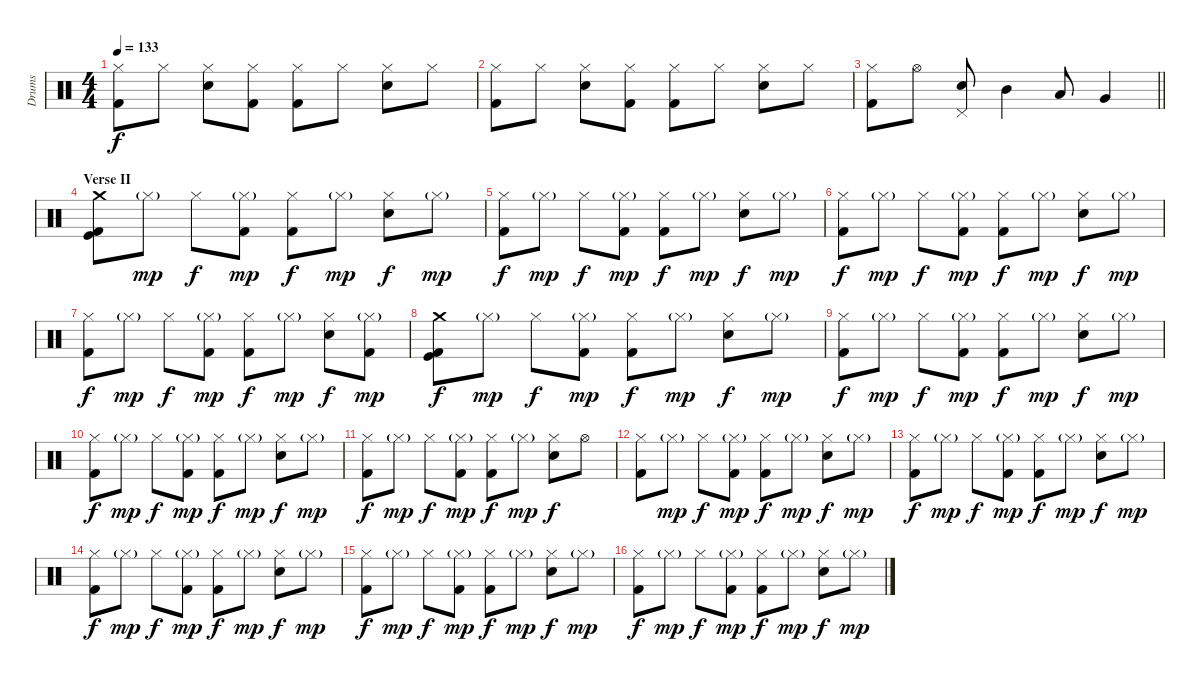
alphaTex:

\track ("Drums" "Drums") {instrument percussion}
\staff {score}
\articulation defaults
\ts (4 4)
\tempo 133
\clef neutral
\ks c
("Hi-Hat (closed)" "Kick (hit) 2").8{dy f} "Hi-Hat (closed)".8 ("Hi-Hat (closed)" "Electric Snare (hit)").8 ("Hi-Hat (closed)" "Kick (hit) 2").8 ("Hi-Hat (closed)" "Kick (hit) 2").8 "Hi-Hat (closed)".8 ("Hi-Hat (closed)" "Electric Snare (hit)").8 "Hi-Hat (closed)".8 |
("Hi-Hat (closed)" "Kick (hit) 2").8 "Hi-Hat (closed)".8 ("Hi-Hat (closed)" "Electric Snare (hit)").8 ("Hi-Hat (closed)" "Kick (hit) 2").8 ("Hi-Hat (closed)" "Kick (hit) 2").8 "Hi-Hat (closed)".8 ("Hi-Hat (closed)" "Electric Snare (hit)").8 "Hi-Hat (closed)".8 |
\barLineRight lightlight
("Hi-Hat (closed)" "Kick (hit) 2").8 "Hi-Hat (open)".8 ("Pedal Hi-Hat (hit)" "Electric Snare (hit)").8 "Mid Tom (hit)".4 "Low Tom (hit)".8 "Very Low Tom (hit)".4 |
\section ("" "Verse II")
("Crash medium (hit)" "Kick (hit) 2" "Kick (hit)").8 "Hi-Hat (closed)"{g}.8{dy mp} "Hi-Hat (closed)".8{dy f} ("Hi-Hat (closed)"{g} "Kick (hit) 2").8{dy mp} ("Hi-Hat (closed)" "Kick (hit) 2").8{dy f} "Hi-Hat (closed)"{g}.8{dy mp} ("Hi-Hat (closed)" "Electric Snare (hit)").8{dy f} "Hi-Hat (closed)"{g}.8{dy mp} |
("Hi-Hat (closed)" "Kick (hit) 2").8{dy f} "Hi-Hat (closed)"{g}.8{dy mp} "Hi-Hat (closed)".8{dy f} ("Hi-Hat (closed)"{g} "Kick (hit) 2").8{dy mp} ("Hi-Hat (closed)" "Kick (hit) 2").8{dy f} "Hi-Hat (closed)"{g}.8{dy mp} ("Hi-Hat (closed)" "Electric Snare (hit)").8{dy f} "Hi-Hat (closed)"{g}.8{dy mp} |
("Hi-Hat (closed)" "Kick (hit) 2").8{dy f} "Hi-Hat (closed)"{g}.8{dy mp} "Hi-Hat (closed)".8{dy f} ("Hi-Hat (closed)"{g} "Kick (hit) 2").8{dy mp} ("Hi-Hat (closed)" "Kick (hit) 2").8{dy f} "Hi-Hat (closed)"{g}.8{dy mp} ("Hi-Hat (closed)" "Electric Snare (hit)").8{dy f} "Hi-Hat (closed)"{g}.8{dy mp} |
("Hi-Hat (closed)" "Kick (hit) 2").8{dy f} "Hi-Hat (closed)"{g}.8{dy mp} "Hi-Hat (closed)".8{dy f} ("Hi-Hat (closed)"{g} "Kick (hit) 2").8{dy mp} ("Hi-Hat (closed)" "Kick (hit) 2").8{dy f} "Hi-Hat (closed)"{g}.8{dy mp} ("Hi-Hat (closed)" "Electric Snare (hit)").8{dy f} ("Hi-Hat (closed)"{g} "Kick (hit) 2").8{dy mp} |
("Crash medium (hit)" "Kick (hit) 2" "Kick (hit)").8{dy f} "Hi-Hat (closed)"{g}.8{dy mp} "Hi-Hat (closed)".8{dy f} ("Hi-Hat (closed)"{g} "Kick (hit) 2").8{dy mp} ("Hi-Hat (closed)" "Kick (hit) 2").8{dy f} "Hi-Hat (closed)"{g}.8{dy mp} ("Hi-Hat (closed)" "Electric Snare (hit)").8{dy f} "Hi-Hat (closed)"{g}.8{dy mp} |
("Hi-Hat (closed)" "Kick (hit) 2").8{dy f} "Hi-Hat (closed)"{g}.8{dy mp} "Hi-Hat (closed)".8{dy f} ("Hi-Hat (closed)"{g} "Kick (hit) 2").8{dy mp} ("Hi-Hat (closed)" "Kick (hit) 2").8{dy f} "Hi-Hat (closed)"{g}.8{dy mp} ("Hi-Hat (closed)" "Electric Snare (hit)").8{dy f} "Hi-Hat (closed)"{g}.8{dy mp} |
("Hi-Hat (closed)" "Kick (hit) 2").8{dy f} "Hi-Hat (closed)"{g}.8{dy mp} "Hi-Hat (closed)".8{dy f} ("Hi-Hat (closed)"{g} "Kick (hit) 2").8{dy mp} ("Hi-Hat (closed)" "Kick (hit) 2").8{dy f} "Hi-Hat (closed)"{g}.8{dy mp} ("Hi-Hat (closed)" "Electric Snare (hit)").8{dy f} "Hi-Hat (closed)"{g}.8{dy mp} |
("Hi-Hat (closed)" "Kick (hit) 2").8{dy f} "Hi-Hat (closed)"{g}.8{dy mp} "Hi-Hat (closed)".8{dy f} ("Hi-Hat (closed)"{g} "Kick (hit) 2").8{dy mp} ("Hi-Hat (closed)" "Kick (hit) 2").8{dy f} "Hi-Hat (closed)"{g}.8{dy mp} ("Hi-Hat (closed)" "Electric Snare (hit)").8{dy f} "Hi-Hat (open)".8 |
("Hi-Hat (closed)" "Kick (hit) 2").8 "Hi-Hat (closed)"{g}.8{dy mp} "Hi-Hat (closed)".8{dy f} ("Hi-Hat (closed)"{g} "Kick (hit) 2").8{dy mp} ("Hi-Hat (closed)" "Kick (hit) 2").8{dy f} "Hi-Hat (closed)"{g}.8{dy mp} ("Hi-Hat (closed)" "Electric Snare (hit)").8{dy f} "Hi-Hat (closed)"{g}.8{dy mp} |
("Hi-Hat (closed)" "Kick (hit) 2").8{dy f} "Hi-Hat (closed)"{g}.8{dy mp} "Hi-Hat (closed)".8{dy f} ("Hi-Hat (closed)"{g} "Kick (hit) 2").8{dy mp} ("Hi-Hat (closed)" "Kick (hit) 2").8{dy f} "Hi-Hat (closed)"{g}.8{dy mp} ("Hi-Hat (closed)" "Electric Snare (hit)").8{dy f} "Hi-Hat (closed)"{g}.8{dy mp} |
("Hi-Hat (closed)" "Kick (hit) 2").8{dy f} "Hi-Hat (closed)"{g}.8{dy mp} "Hi-Hat (closed)".8{dy f} ("Hi-Hat (closed)"{g} "Kick (hit) 2").8{dy mp} ("Hi-Hat (closed)" "Kick (hit) 2").8{dy f} "Hi-Hat (closed)"{g}.8{dy mp} ("Hi-Hat (closed)" "Electric Snare (hit)").8{dy f} "Hi-Hat (closed)"{g}.8{dy mp} |
("Hi-Hat (closed)" "Kick (hit) 2").8{dy f} "Hi-Hat (closed)"{g}.8{dy mp} "Hi-Hat (closed)".8{dy f} ("Hi-Hat (closed)"{g} "Kick (hit) 2").8{dy mp} ("Hi-Hat (closed)" "Kick (hit) 2").8{dy f} "Hi-Hat (closed)"{g}.8{dy mp} ("Hi-Hat (closed)" "Electric Snare (hit)").8{dy f} "Hi-Hat (closed)"{g}.8{dy mp} |
("Hi-Hat (closed)" "Kick (hit) 2").8{dy f} "Hi-Hat (closed)"{g}.8{dy mp} "Hi-Hat (closed)".8{dy f} ("Hi-Hat (closed)"{g} "Kick (hit) 2").8{dy mp} ("Hi-Hat (closed)" "Kick (hit) 2").8{dy f} "Hi-Hat (closed)"{g}.8{dy mp} ("Hi-Hat (closed)" "Electric Snare (hit)").8{dy f} "Hi-Hat (closed)"{g}.8{dy mp}
